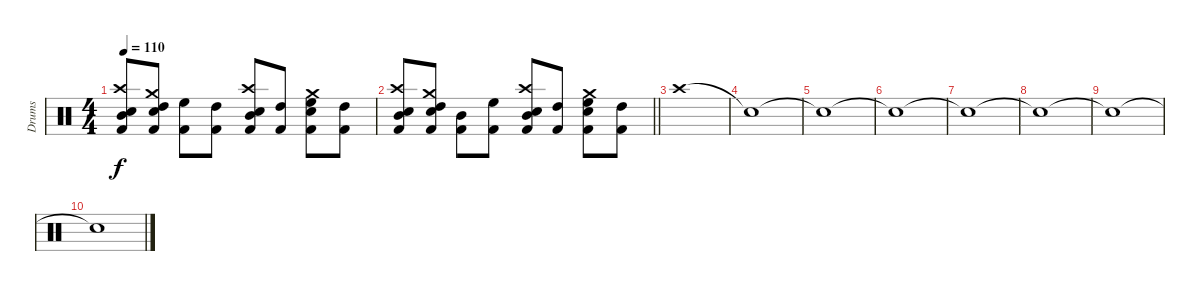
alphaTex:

\track ("Drums" "Drums") {instrument percussion}
\staff {score}
\articulation defaults
\ts (4 4)
\tempo 110
\clef neutral
\ks c
("Kick (hit) 2" "Crash high (hit)" "Mid Tom (hit)" "Snare (hit) 2").8{dy f} ("Kick (hit) 2" "Crash medium (hit)" "High Tom (hit)" "Snare (hit) 2").8 ("Kick (hit) 2" "High Floor Tom (hit)").8 ("Kick (hit) 2" "High Tom (hit)").8 ("Kick (hit) 2" "Crash high (hit)" "Mid Tom (hit)" "Snare (hit) 2").8 ("Kick (hit) 2" "High Tom (hit)").8 ("Kick (hit) 2" "Crash medium (hit)" "High Floor Tom (hit)" "Snare (hit) 2").8 ("Kick (hit) 2" "High Tom (hit)").8 |
\barLineRight lightlight
("Kick (hit) 2" "Crash high (hit)" "Mid Tom (hit)" "Snare (hit) 2").8 ("Kick (hit) 2" "Crash medium (hit)" "High Tom (hit)" "Snare (hit) 2").8 ("Kick (hit) 2" "Mid Tom (hit)").8 ("Kick (hit) 2" "High Floor Tom (hit)").8 ("Kick (hit) 2" "Crash high (hit)" "Mid Tom (hit)" "Snare (hit) 2").8 ("Kick (hit) 2" "High Tom (hit)").8 ("Kick (hit) 2" "Crash medium (hit)" "High Floor Tom (hit)" "Snare (hit) 2").8 ("Kick (hit) 2" "High Tom (hit)").8 |
"Crash high (hit)".1{volume 8} |
"Snare (hit)"{t}.1 |
"Snare (hit)"{t}.1 |
"Snare (hit)"{t}.1 |
"Snare (hit)"{t}.1{volume 0} |
"Snare (hit)"{t}.1 |
"Snare (hit)"{t}.1 |
"Snare (hit)"{t}.1
